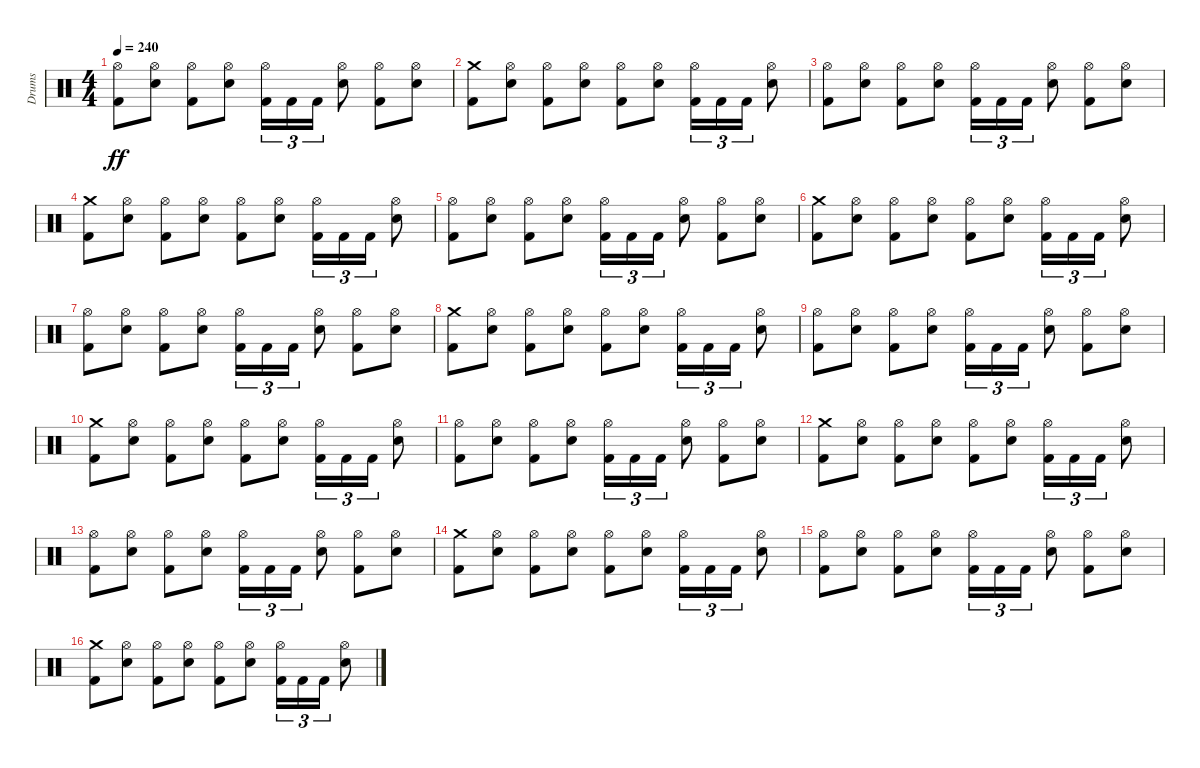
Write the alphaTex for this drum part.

\track ("Drums" "Drums") {instrument percussion}
\staff {score}
\articulation defaults
\ts (4 4)
\tempo 240
\clef neutral
\ks c
("Hi-Hat (open)" "Kick (hit) 2").8{dy ff} ("Hi-Hat (open)" "Snare (hit) 2").8 ("Hi-Hat (open)" "Kick (hit) 2").8 ("Hi-Hat (open)" "Snare (hit) 2").8 ("Hi-Hat (open)" "Kick (hit) 2").16{tu (3 2)} "Kick (hit) 2".16{tu (3 2)} "Kick (hit) 2".16{tu (3 2)} ("Hi-Hat (open)" "Snare (hit) 2").8 ("Hi-Hat (open)" "Kick (hit) 2").8 ("Hi-Hat (open)" "Snare (hit) 2").8 |
("Crash medium (hit)" "Kick (hit) 2").8 ("Hi-Hat (open)" "Snare (hit) 2").8 ("Hi-Hat (open)" "Kick (hit) 2").8 ("Hi-Hat (open)" "Snare (hit) 2").8 ("Hi-Hat (open)" "Kick (hit) 2").8 ("Hi-Hat (open)" "Snare (hit) 2").8 ("Hi-Hat (open)" "Kick (hit) 2").16{tu (3 2)} "Kick (hit) 2".16{tu (3 2)} "Kick (hit) 2".16{tu (3 2)} ("Hi-Hat (open)" "Snare (hit) 2").8 |
("Hi-Hat (open)" "Kick (hit) 2").8 ("Hi-Hat (open)" "Snare (hit) 2").8 ("Hi-Hat (open)" "Kick (hit) 2").8 ("Hi-Hat (open)" "Snare (hit) 2").8 ("Hi-Hat (open)" "Kick (hit) 2").16{tu (3 2)} "Kick (hit) 2".16{tu (3 2)} "Kick (hit) 2".16{tu (3 2)} ("Hi-Hat (open)" "Snare (hit) 2").8 ("Hi-Hat (open)" "Kick (hit) 2").8 ("Hi-Hat (open)" "Snare (hit) 2").8 |
("Crash medium (hit)" "Kick (hit) 2").8 ("Hi-Hat (open)" "Snare (hit) 2").8 ("Hi-Hat (open)" "Kick (hit) 2").8 ("Hi-Hat (open)" "Snare (hit) 2").8 ("Hi-Hat (open)" "Kick (hit) 2").8 ("Hi-Hat (open)" "Snare (hit) 2").8 ("Hi-Hat (open)" "Kick (hit) 2").16{tu (3 2)} "Kick (hit) 2".16{tu (3 2)} "Kick (hit) 2".16{tu (3 2)} ("Hi-Hat (open)" "Snare (hit) 2").8 |
("Hi-Hat (open)" "Kick (hit) 2").8 ("Hi-Hat (open)" "Snare (hit) 2").8 ("Hi-Hat (open)" "Kick (hit) 2").8 ("Hi-Hat (open)" "Snare (hit) 2").8 ("Hi-Hat (open)" "Kick (hit) 2").16{tu (3 2)} "Kick (hit) 2".16{tu (3 2)} "Kick (hit) 2".16{tu (3 2)} ("Hi-Hat (open)" "Snare (hit) 2").8 ("Hi-Hat (open)" "Kick (hit) 2").8 ("Hi-Hat (open)" "Snare (hit) 2").8 |
("Crash medium (hit)" "Kick (hit) 2").8 ("Hi-Hat (open)" "Snare (hit) 2").8 ("Hi-Hat (open)" "Kick (hit) 2").8 ("Hi-Hat (open)" "Snare (hit) 2").8 ("Hi-Hat (open)" "Kick (hit) 2").8 ("Hi-Hat (open)" "Snare (hit) 2").8 ("Hi-Hat (open)" "Kick (hit) 2").16{tu (3 2)} "Kick (hit) 2".16{tu (3 2)} "Kick (hit) 2".16{tu (3 2)} ("Hi-Hat (open)" "Snare (hit) 2").8 |
("Hi-Hat (open)" "Kick (hit) 2").8 ("Hi-Hat (open)" "Snare (hit) 2").8 ("Hi-Hat (open)" "Kick (hit) 2").8 ("Hi-Hat (open)" "Snare (hit) 2").8 ("Hi-Hat (open)" "Kick (hit) 2").16{tu (3 2)} "Kick (hit) 2".16{tu (3 2)} "Kick (hit) 2".16{tu (3 2)} ("Hi-Hat (open)" "Snare (hit) 2").8 ("Hi-Hat (open)" "Kick (hit) 2").8 ("Hi-Hat (open)" "Snare (hit) 2").8 |
("Crash medium (hit)" "Kick (hit) 2").8 ("Hi-Hat (open)" "Snare (hit) 2").8 ("Hi-Hat (open)" "Kick (hit) 2").8 ("Hi-Hat (open)" "Snare (hit) 2").8 ("Hi-Hat (open)" "Kick (hit) 2").8 ("Hi-Hat (open)" "Snare (hit) 2").8 ("Hi-Hat (open)" "Kick (hit) 2").16{tu (3 2)} "Kick (hit) 2".16{tu (3 2)} "Kick (hit) 2".16{tu (3 2)} ("Hi-Hat (open)" "Snare (hit) 2").8 |
("Hi-Hat (open)" "Kick (hit) 2").8 ("Hi-Hat (open)" "Snare (hit) 2").8 ("Hi-Hat (open)" "Kick (hit) 2").8 ("Hi-Hat (open)" "Snare (hit) 2").8 ("Hi-Hat (open)" "Kick (hit) 2").16{tu (3 2)} "Kick (hit) 2".16{tu (3 2)} "Kick (hit) 2".16{tu (3 2)} ("Hi-Hat (open)" "Snare (hit) 2").8 ("Hi-Hat (open)" "Kick (hit) 2").8 ("Hi-Hat (open)" "Snare (hit) 2").8 |
("Crash medium (hit)" "Kick (hit) 2").8 ("Hi-Hat (open)" "Snare (hit) 2").8 ("Hi-Hat (open)" "Kick (hit) 2").8 ("Hi-Hat (open)" "Snare (hit) 2").8 ("Hi-Hat (open)" "Kick (hit) 2").8 ("Hi-Hat (open)" "Snare (hit) 2").8 ("Hi-Hat (open)" "Kick (hit) 2").16{tu (3 2)} "Kick (hit) 2".16{tu (3 2)} "Kick (hit) 2".16{tu (3 2)} ("Hi-Hat (open)" "Snare (hit) 2").8 |
("Hi-Hat (open)" "Kick (hit) 2").8 ("Hi-Hat (open)" "Snare (hit) 2").8 ("Hi-Hat (open)" "Kick (hit) 2").8 ("Hi-Hat (open)" "Snare (hit) 2").8 ("Hi-Hat (open)" "Kick (hit) 2").16{tu (3 2)} "Kick (hit) 2".16{tu (3 2)} "Kick (hit) 2".16{tu (3 2)} ("Hi-Hat (open)" "Snare (hit) 2").8 ("Hi-Hat (open)" "Kick (hit) 2").8 ("Hi-Hat (open)" "Snare (hit) 2").8 |
("Crash medium (hit)" "Kick (hit) 2").8 ("Hi-Hat (open)" "Snare (hit) 2").8 ("Hi-Hat (open)" "Kick (hit) 2").8 ("Hi-Hat (open)" "Snare (hit) 2").8 ("Hi-Hat (open)" "Kick (hit) 2").8 ("Hi-Hat (open)" "Snare (hit) 2").8 ("Hi-Hat (open)" "Kick (hit) 2").16{tu (3 2)} "Kick (hit) 2".16{tu (3 2)} "Kick (hit) 2".16{tu (3 2)} ("Hi-Hat (open)" "Snare (hit) 2").8 |
("Hi-Hat (open)" "Kick (hit) 2").8 ("Hi-Hat (open)" "Snare (hit) 2").8 ("Hi-Hat (open)" "Kick (hit) 2").8 ("Hi-Hat (open)" "Snare (hit) 2").8 ("Hi-Hat (open)" "Kick (hit) 2").16{tu (3 2)} "Kick (hit) 2".16{tu (3 2)} "Kick (hit) 2".16{tu (3 2)} ("Hi-Hat (open)" "Snare (hit) 2").8 ("Hi-Hat (open)" "Kick (hit) 2").8 ("Hi-Hat (open)" "Snare (hit) 2").8 |
("Crash medium (hit)" "Kick (hit) 2").8 ("Hi-Hat (open)" "Snare (hit) 2").8 ("Hi-Hat (open)" "Kick (hit) 2").8 ("Hi-Hat (open)" "Snare (hit) 2").8 ("Hi-Hat (open)" "Kick (hit) 2").8 ("Hi-Hat (open)" "Snare (hit) 2").8 ("Hi-Hat (open)" "Kick (hit) 2").16{tu (3 2)} "Kick (hit) 2".16{tu (3 2)} "Kick (hit) 2".16{tu (3 2)} ("Hi-Hat (open)" "Snare (hit) 2").8 |
("Hi-Hat (open)" "Kick (hit) 2").8 ("Hi-Hat (open)" "Snare (hit) 2").8 ("Hi-Hat (open)" "Kick (hit) 2").8 ("Hi-Hat (open)" "Snare (hit) 2").8 ("Hi-Hat (open)" "Kick (hit) 2").16{tu (3 2)} "Kick (hit) 2".16{tu (3 2)} "Kick (hit) 2".16{tu (3 2)} ("Hi-Hat (open)" "Snare (hit) 2").8 ("Hi-Hat (open)" "Kick (hit) 2").8 ("Hi-Hat (open)" "Snare (hit) 2").8 |
("Crash medium (hit)" "Kick (hit) 2").8 ("Hi-Hat (open)" "Snare (hit) 2").8 ("Hi-Hat (open)" "Kick (hit) 2").8 ("Hi-Hat (open)" "Snare (hit) 2").8 ("Hi-Hat (open)" "Kick (hit) 2").8 ("Hi-Hat (open)" "Snare (hit) 2").8 ("Hi-Hat (open)" "Kick (hit) 2").16{tu (3 2)} "Kick (hit) 2".16{tu (3 2)} "Kick (hit) 2".16{tu (3 2)} ("Hi-Hat (open)" "Snare (hit) 2").8
